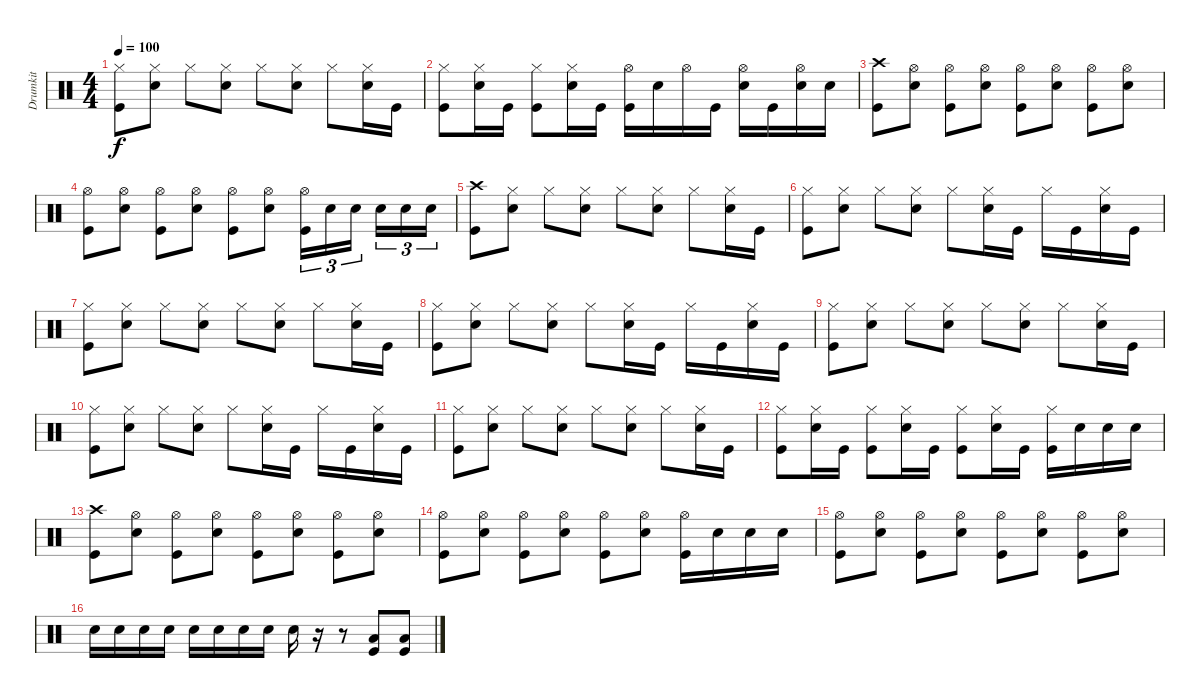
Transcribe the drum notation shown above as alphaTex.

\track ("Drumkit" "Drumkit") {instrument percussion}
\staff {score}
\articulation defaults
\ts (4 4)
\tempo 100
\clef neutral
\ks c
("Hi-Hat (closed)" "Kick (hit)").8{dy f} ("Hi-Hat (closed)" "Snare (hit) 2").8 "Hi-Hat (closed)".8 ("Hi-Hat (closed)" "Snare (hit) 2").8 "Hi-Hat (closed)".8 ("Hi-Hat (closed)" "Snare (hit) 2").8 "Hi-Hat (closed)".8 ("Hi-Hat (closed)" "Snare (hit) 2").16 "Kick (hit)".16 |
("Hi-Hat (closed)" "Kick (hit)").8 ("Hi-Hat (closed)" "Snare (hit) 2").16 "Kick (hit)".16 ("Hi-Hat (closed)" "Kick (hit)").8 ("Hi-Hat (closed)" "Snare (hit) 2").16 "Kick (hit)".16 ("Hi-Hat (open)" "Kick (hit)").16 "Snare (hit) 2".16 "Hi-Hat (open)".16 "Kick (hit)".16 ("Hi-Hat (open)" "Snare (hit) 2").16 "Kick (hit)".16 ("Hi-Hat (open)" "Snare (hit) 2").16 "Snare (hit) 2".16 |
("Crash high (hit)" "Kick (hit)").8 ("Hi-Hat (open)" "Snare (hit) 2").8 ("Hi-Hat (open)" "Kick (hit)").8 ("Hi-Hat (open)" "Snare (hit) 2").8 ("Hi-Hat (open)" "Kick (hit)").8 ("Hi-Hat (open)" "Snare (hit) 2").8 ("Hi-Hat (open)" "Kick (hit)").8 ("Hi-Hat (open)" "Snare (hit) 2").8 |
("Hi-Hat (open)" "Kick (hit)").8 ("Hi-Hat (open)" "Snare (hit) 2").8 ("Hi-Hat (open)" "Kick (hit)").8 ("Hi-Hat (open)" "Snare (hit) 2").8 ("Hi-Hat (open)" "Kick (hit)").8 ("Hi-Hat (open)" "Snare (hit) 2").8 ("Hi-Hat (open)" "Kick (hit)").16{tu (3 2)} "Snare (hit) 2".16{tu (3 2)} "Snare (hit) 2".16{tu (3 2)} "Snare (hit) 2".16{tu (3 2)} "Snare (hit) 2".16{tu (3 2)} "Snare (hit) 2".16{tu (3 2)} |
("Crash high (hit)" "Kick (hit)").8 ("Hi-Hat (closed)" "Snare (hit) 2").8 "Hi-Hat (closed)".8 ("Hi-Hat (closed)" "Snare (hit) 2").8 "Hi-Hat (closed)".8 ("Hi-Hat (closed)" "Snare (hit) 2").8 "Hi-Hat (closed)".8 ("Hi-Hat (closed)" "Snare (hit) 2").16 "Kick (hit)".16 |
("Hi-Hat (closed)" "Kick (hit)").8 ("Hi-Hat (closed)" "Snare (hit) 2").8 "Hi-Hat (closed)".8 ("Hi-Hat (closed)" "Snare (hit) 2").8 "Hi-Hat (closed)".8 ("Hi-Hat (closed)" "Snare (hit) 2").16 "Kick (hit)".16 "Hi-Hat (closed)".16 "Kick (hit)".16 ("Hi-Hat (closed)" "Snare (hit) 2").16 "Kick (hit)".16 |
("Hi-Hat (closed)" "Kick (hit)").8 ("Hi-Hat (closed)" "Snare (hit) 2").8 "Hi-Hat (closed)".8 ("Hi-Hat (closed)" "Snare (hit) 2").8 "Hi-Hat (closed)".8 ("Hi-Hat (closed)" "Snare (hit) 2").8 "Hi-Hat (closed)".8 ("Hi-Hat (closed)" "Snare (hit) 2").16 "Kick (hit)".16 |
("Hi-Hat (closed)" "Kick (hit)").8 ("Hi-Hat (closed)" "Snare (hit) 2").8 "Hi-Hat (closed)".8 ("Hi-Hat (closed)" "Snare (hit) 2").8 "Hi-Hat (closed)".8 ("Hi-Hat (closed)" "Snare (hit) 2").16 "Kick (hit)".16 "Hi-Hat (closed)".16 "Kick (hit)".16 ("Hi-Hat (closed)" "Snare (hit) 2").16 "Kick (hit)".16 |
("Hi-Hat (closed)" "Kick (hit)").8 ("Hi-Hat (closed)" "Snare (hit) 2").8 "Hi-Hat (closed)".8 ("Hi-Hat (closed)" "Snare (hit) 2").8 "Hi-Hat (closed)".8 ("Hi-Hat (closed)" "Snare (hit) 2").8 "Hi-Hat (closed)".8 ("Hi-Hat (closed)" "Snare (hit) 2").16 "Kick (hit)".16 |
("Hi-Hat (closed)" "Kick (hit)").8 ("Hi-Hat (closed)" "Snare (hit) 2").8 "Hi-Hat (closed)".8 ("Hi-Hat (closed)" "Snare (hit) 2").8 "Hi-Hat (closed)".8 ("Hi-Hat (closed)" "Snare (hit) 2").16 "Kick (hit)".16 "Hi-Hat (closed)".16 "Kick (hit)".16 ("Hi-Hat (closed)" "Snare (hit) 2").16 "Kick (hit)".16 |
("Hi-Hat (closed)" "Kick (hit)").8 ("Hi-Hat (closed)" "Snare (hit) 2").8 "Hi-Hat (closed)".8 ("Hi-Hat (closed)" "Snare (hit) 2").8 "Hi-Hat (closed)".8 ("Hi-Hat (closed)" "Snare (hit) 2").8 "Hi-Hat (closed)".8 ("Hi-Hat (closed)" "Snare (hit) 2").16 "Kick (hit)".16 |
("Hi-Hat (closed)" "Kick (hit)").8 ("Hi-Hat (closed)" "Snare (hit) 2").16 "Kick (hit)".16 ("Hi-Hat (closed)" "Kick (hit)").8 ("Hi-Hat (closed)" "Snare (hit) 2").16 "Kick (hit)".16 ("Hi-Hat (closed)" "Kick (hit)").8 ("Hi-Hat (closed)" "Snare (hit) 2").16 "Kick (hit)".16 ("Hi-Hat (closed)" "Kick (hit)").16 "Snare (hit) 2".16 "Snare (hit) 2".16 "Snare (hit) 2".16 |
("Crash high (hit)" "Kick (hit)").8 ("Hi-Hat (open)" "Snare (hit) 2").8 ("Hi-Hat (open)" "Kick (hit)").8 ("Hi-Hat (open)" "Snare (hit) 2").8 ("Hi-Hat (open)" "Kick (hit)").8 ("Hi-Hat (open)" "Snare (hit) 2").8 ("Hi-Hat (open)" "Kick (hit)").8 ("Hi-Hat (open)" "Snare (hit) 2").8 |
("Hi-Hat (open)" "Kick (hit)").8 ("Hi-Hat (open)" "Snare (hit) 2").8 ("Hi-Hat (open)" "Kick (hit)").8 ("Hi-Hat (open)" "Snare (hit) 2").8 ("Hi-Hat (open)" "Kick (hit)").8 ("Hi-Hat (open)" "Snare (hit) 2").8 ("Hi-Hat (open)" "Kick (hit)").16 "Snare (hit) 2".16 "Snare (hit) 2".16 "Snare (hit) 2".16 |
("Hi-Hat (open)" "Kick (hit)").8 ("Hi-Hat (open)" "Snare (hit) 2").8 ("Hi-Hat (open)" "Kick (hit)").8 ("Hi-Hat (open)" "Snare (hit) 2").8 ("Hi-Hat (open)" "Kick (hit)").8 ("Hi-Hat (open)" "Snare (hit) 2").8 ("Hi-Hat (open)" "Kick (hit)").8 ("Hi-Hat (open)" "Snare (hit) 2").8 |
"Snare (hit) 2".16 "Snare (hit) 2".16 "Snare (hit) 2".16 "Snare (hit) 2".16 "Snare (hit) 2".16 "Snare (hit) 2".16 "Snare (hit) 2".16 "Snare (hit) 2".16 "Snare (hit) 2".16 r.16 r.8 ("Low Tom (hit)" "Kick (hit)").8 ("Low Floor Tom (hit)" "Kick (hit)").8
